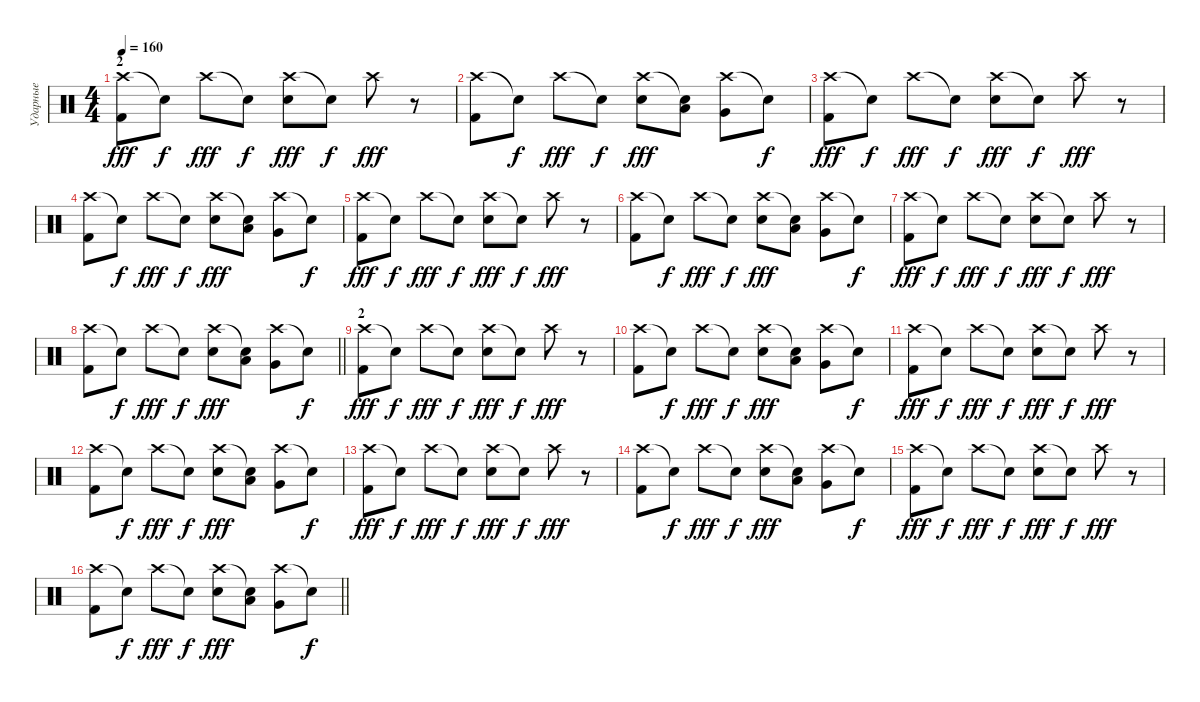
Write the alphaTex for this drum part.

\track ("Ударные" "Ударные") {instrument percussion}
\staff {score}
\articulation defaults
\ts (4 4)
\section ("" "2")
\tempo 160
\clef neutral
\ks c
("Crash high (hit)" "Kick (hit) 2").8{dy fff} "Snare (hit)"{t}.8{dy f} "Crash high (hit)".8{dy fff} "Snare (hit)"{t}.8{dy f} ("Crash high (hit)" "Electric Snare (hit)").8{dy fff} "Snare (hit)"{t}.8{dy f} "Crash high (hit)".8{dy fff} r.8 |
("Crash high (hit)" "Kick (hit) 2").8 "Snare (hit)"{t}.8{dy f} "Crash high (hit)".8{dy fff} "Snare (hit)"{t}.8{dy f} ("Crash high (hit)" "Electric Snare (hit)").8{dy fff} ("Snare (hit)"{t} "Low Tom (hit)").8 ("Crash high (hit)" "Very Low Tom (hit)").8 "Snare (hit)"{t}.8{dy f} |
("Crash high (hit)" "Kick (hit) 2").8{dy fff} "Snare (hit)"{t}.8{dy f} "Crash high (hit)".8{dy fff} "Snare (hit)"{t}.8{dy f} ("Crash high (hit)" "Electric Snare (hit)").8{dy fff} "Snare (hit)"{t}.8{dy f} "Crash high (hit)".8{dy fff} r.8 |
("Crash high (hit)" "Kick (hit) 2").8 "Snare (hit)"{t}.8{dy f} "Crash high (hit)".8{dy fff} "Snare (hit)"{t}.8{dy f} ("Crash high (hit)" "Electric Snare (hit)").8{dy fff} ("Snare (hit)"{t} "Low Tom (hit)").8 ("Crash high (hit)" "Very Low Tom (hit)").8 "Snare (hit)"{t}.8{dy f} |
("Crash high (hit)" "Kick (hit) 2").8{dy fff} "Snare (hit)"{t}.8{dy f} "Crash high (hit)".8{dy fff} "Snare (hit)"{t}.8{dy f} ("Crash high (hit)" "Electric Snare (hit)").8{dy fff} "Snare (hit)"{t}.8{dy f} "Crash high (hit)".8{dy fff} r.8 |
("Crash high (hit)" "Kick (hit) 2").8 "Snare (hit)"{t}.8{dy f} "Crash high (hit)".8{dy fff} "Snare (hit)"{t}.8{dy f} ("Crash high (hit)" "Electric Snare (hit)").8{dy fff} ("Snare (hit)"{t} "Low Tom (hit)").8 ("Crash high (hit)" "Very Low Tom (hit)").8 "Snare (hit)"{t}.8{dy f} |
("Crash high (hit)" "Kick (hit) 2").8{dy fff} "Snare (hit)"{t}.8{dy f} "Crash high (hit)".8{dy fff} "Snare (hit)"{t}.8{dy f} ("Crash high (hit)" "Electric Snare (hit)").8{dy fff} "Snare (hit)"{t}.8{dy f} "Crash high (hit)".8{dy fff} r.8 |
\barLineRight lightlight
("Crash high (hit)" "Kick (hit) 2").8 "Snare (hit)"{t}.8{dy f} "Crash high (hit)".8{dy fff} "Snare (hit)"{t}.8{dy f} ("Crash high (hit)" "Electric Snare (hit)").8{dy fff} ("Snare (hit)"{t} "Low Tom (hit)").8 ("Crash high (hit)" "Very Low Tom (hit)").8 "Snare (hit)"{t}.8{dy f} |
\section ("" "2")
("Crash high (hit)" "Kick (hit) 2").8{dy fff} "Snare (hit)"{t}.8{dy f} "Crash high (hit)".8{dy fff} "Snare (hit)"{t}.8{dy f} ("Crash high (hit)" "Electric Snare (hit)").8{dy fff} "Snare (hit)"{t}.8{dy f} "Crash high (hit)".8{dy fff} r.8 |
("Crash high (hit)" "Kick (hit) 2").8 "Snare (hit)"{t}.8{dy f} "Crash high (hit)".8{dy fff} "Snare (hit)"{t}.8{dy f} ("Crash high (hit)" "Electric Snare (hit)").8{dy fff} ("Snare (hit)"{t} "Low Tom (hit)").8 ("Crash high (hit)" "Very Low Tom (hit)").8 "Snare (hit)"{t}.8{dy f} |
("Crash high (hit)" "Kick (hit) 2").8{dy fff} "Snare (hit)"{t}.8{dy f} "Crash high (hit)".8{dy fff} "Snare (hit)"{t}.8{dy f} ("Crash high (hit)" "Electric Snare (hit)").8{dy fff} "Snare (hit)"{t}.8{dy f} "Crash high (hit)".8{dy fff} r.8 |
("Crash high (hit)" "Kick (hit) 2").8 "Snare (hit)"{t}.8{dy f} "Crash high (hit)".8{dy fff} "Snare (hit)"{t}.8{dy f} ("Crash high (hit)" "Electric Snare (hit)").8{dy fff} ("Snare (hit)"{t} "Low Tom (hit)").8 ("Crash high (hit)" "Very Low Tom (hit)").8 "Snare (hit)"{t}.8{dy f} |
("Crash high (hit)" "Kick (hit) 2").8{dy fff} "Snare (hit)"{t}.8{dy f} "Crash high (hit)".8{dy fff} "Snare (hit)"{t}.8{dy f} ("Crash high (hit)" "Electric Snare (hit)").8{dy fff} "Snare (hit)"{t}.8{dy f} "Crash high (hit)".8{dy fff} r.8 |
("Crash high (hit)" "Kick (hit) 2").8 "Snare (hit)"{t}.8{dy f} "Crash high (hit)".8{dy fff} "Snare (hit)"{t}.8{dy f} ("Crash high (hit)" "Electric Snare (hit)").8{dy fff} ("Snare (hit)"{t} "Low Tom (hit)").8 ("Crash high (hit)" "Very Low Tom (hit)").8 "Snare (hit)"{t}.8{dy f} |
("Crash high (hit)" "Kick (hit) 2").8{dy fff} "Snare (hit)"{t}.8{dy f} "Crash high (hit)".8{dy fff} "Snare (hit)"{t}.8{dy f} ("Crash high (hit)" "Electric Snare (hit)").8{dy fff} "Snare (hit)"{t}.8{dy f} "Crash high (hit)".8{dy fff} r.8 |
\barLineRight lightlight
("Crash high (hit)" "Kick (hit) 2").8 "Snare (hit)"{t}.8{dy f} "Crash high (hit)".8{dy fff} "Snare (hit)"{t}.8{dy f} ("Crash high (hit)" "Electric Snare (hit)").8{dy fff} ("Snare (hit)"{t} "Low Tom (hit)").8 ("Crash high (hit)" "Very Low Tom (hit)").8 "Snare (hit)"{t}.8{dy f}
